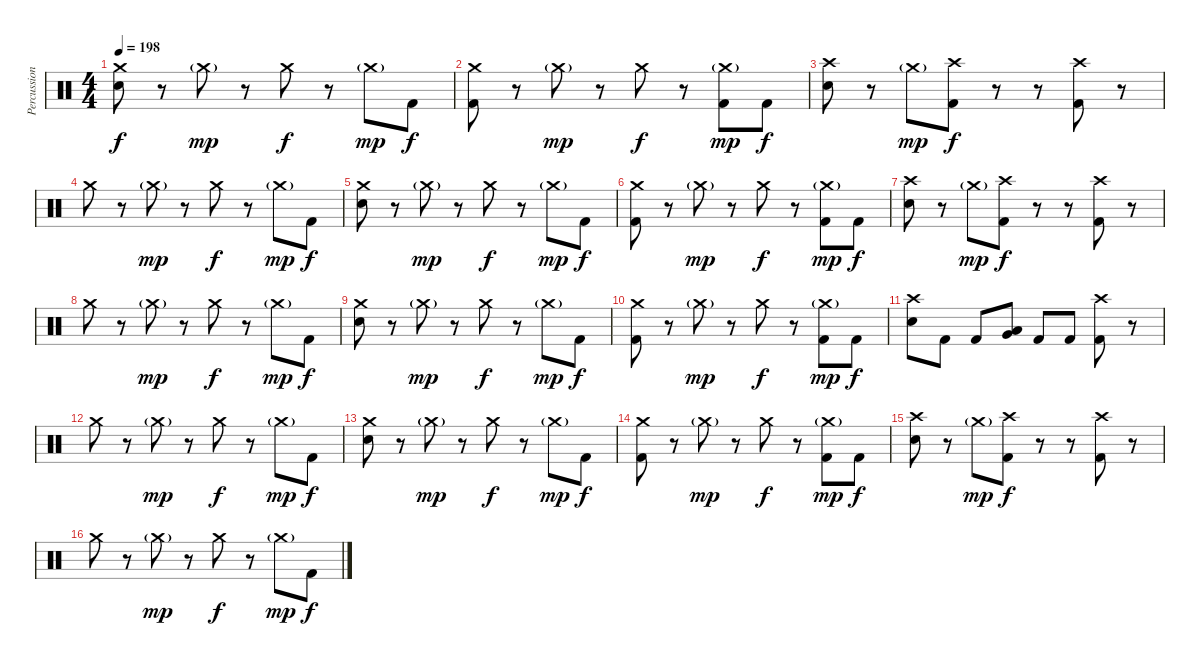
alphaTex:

\track ("Percussion" "Percussion") {instrument percussion}
\staff {score}
\articulation defaults
\ts (4 4)
\tempo 198
\clef neutral
\ks c
("Crash medium (hit)" "Electric Snare (hit)").8{dy f} r.8 "Crash medium (hit)"{g}.8{dy mp} r.8 "Crash medium (hit)".8{dy f} r.8 "Crash medium (hit)"{g}.8{dy mp beam merge} "Kick (hit) 2".8{dy f} |
("Crash medium (hit)" "Kick (hit) 2").8 r.8 "Crash medium (hit)"{g}.8{dy mp} r.8 "Crash medium (hit)".8{dy f} r.8 ("Crash medium (hit)"{g} "Kick (hit) 2").8{dy mp beam merge} "Kick (hit) 2".8{dy f} |
("Crash high (hit)" "Electric Snare (hit)").8 r.8 "Crash medium (hit)"{g}.8{dy mp} ("Crash high (hit)" "Kick (hit) 2").8{dy f} r.8 r.8 ("Crash high (hit)" "Kick (hit) 2").8{beam merge} r.8 |
"Crash medium (hit)".8 r.8 "Crash medium (hit)"{g}.8{dy mp} r.8 "Crash medium (hit)".8{dy f} r.8 "Crash medium (hit)"{g}.8{dy mp beam merge} "Kick (hit) 2".8{dy f} |
("Crash medium (hit)" "Electric Snare (hit)").8 r.8 "Crash medium (hit)"{g}.8{dy mp} r.8 "Crash medium (hit)".8{dy f} r.8 "Crash medium (hit)"{g}.8{dy mp beam merge} "Kick (hit) 2".8{dy f} |
("Crash medium (hit)" "Kick (hit) 2").8 r.8 "Crash medium (hit)"{g}.8{dy mp} r.8 "Crash medium (hit)".8{dy f} r.8 ("Crash medium (hit)"{g} "Kick (hit) 2").8{dy mp beam merge} "Kick (hit) 2".8{dy f} |
("Crash high (hit)" "Electric Snare (hit)").8 r.8 "Crash medium (hit)"{g}.8{dy mp} ("Crash high (hit)" "Kick (hit) 2").8{dy f} r.8 r.8 ("Crash high (hit)" "Kick (hit) 2").8{beam merge} r.8 |
"Crash medium (hit)".8 r.8 "Crash medium (hit)"{g}.8{dy mp} r.8 "Crash medium (hit)".8{dy f} r.8 "Crash medium (hit)"{g}.8{dy mp beam merge} "Kick (hit) 2".8{dy f} |
("Crash medium (hit)" "Electric Snare (hit)").8 r.8 "Crash medium (hit)"{g}.8{dy mp} r.8 "Crash medium (hit)".8{dy f} r.8 "Crash medium (hit)"{g}.8{dy mp beam merge} "Kick (hit) 2".8{dy f} |
("Crash medium (hit)" "Kick (hit) 2").8 r.8 "Crash medium (hit)"{g}.8{dy mp} r.8 "Crash medium (hit)".8{dy f} r.8 ("Crash medium (hit)"{g} "Kick (hit) 2").8{dy mp beam merge} "Kick (hit) 2".8{dy f} |
("Crash high (hit)" "Electric Snare (hit)").8 "Kick (hit) 2".8 "Kick (hit) 2".8 ("Very Low Tom (hit)" "Low Floor Tom (hit)").8 "Kick (hit) 2".8 "Kick (hit) 2".8 ("Crash high (hit)" "Kick (hit) 2").8{beam merge} r.8 |
"Crash medium (hit)".8 r.8 "Crash medium (hit)"{g}.8{dy mp} r.8 "Crash medium (hit)".8{dy f} r.8 "Crash medium (hit)"{g}.8{dy mp beam merge} "Kick (hit) 2".8{dy f} |
("Crash medium (hit)" "Electric Snare (hit)").8 r.8 "Crash medium (hit)"{g}.8{dy mp} r.8 "Crash medium (hit)".8{dy f} r.8 "Crash medium (hit)"{g}.8{dy mp beam merge} "Kick (hit) 2".8{dy f} |
("Crash medium (hit)" "Kick (hit) 2").8 r.8 "Crash medium (hit)"{g}.8{dy mp} r.8 "Crash medium (hit)".8{dy f} r.8 ("Crash medium (hit)"{g} "Kick (hit) 2").8{dy mp beam merge} "Kick (hit) 2".8{dy f} |
("Crash high (hit)" "Electric Snare (hit)").8 r.8 "Crash medium (hit)"{g}.8{dy mp} ("Crash high (hit)" "Kick (hit) 2").8{dy f} r.8 r.8 ("Crash high (hit)" "Kick (hit) 2").8{beam merge} r.8 |
"Crash medium (hit)".8 r.8 "Crash medium (hit)"{g}.8{dy mp} r.8 "Crash medium (hit)".8{dy f} r.8 "Crash medium (hit)"{g}.8{dy mp beam merge} "Kick (hit) 2".8{dy f}
